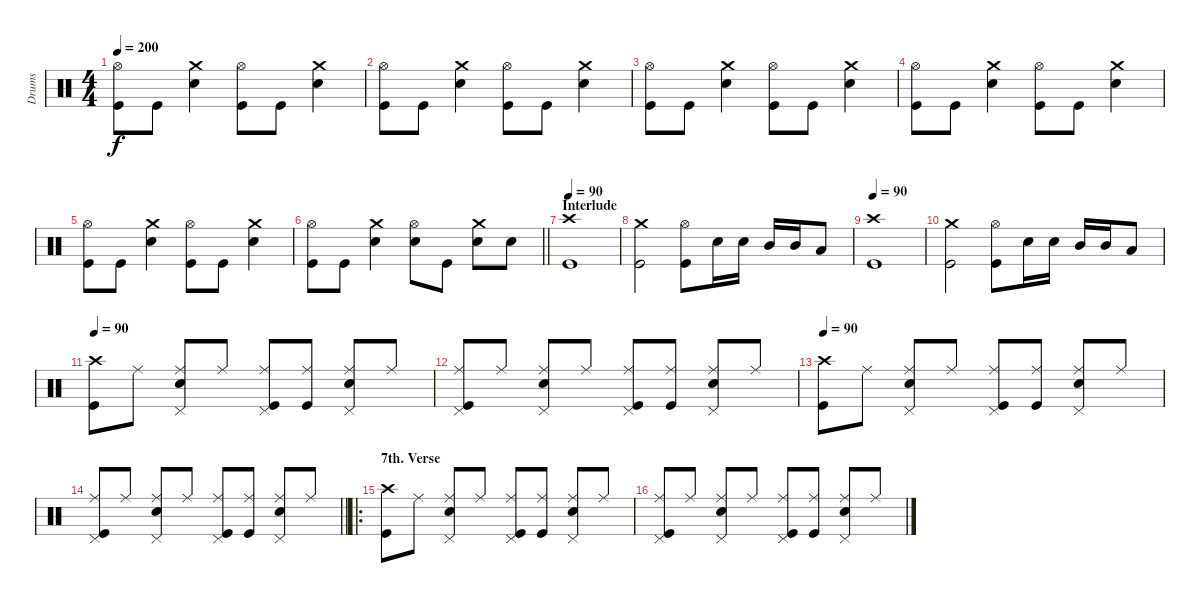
\track ("Drums" "Drums") {instrument percussion}
\staff {score}
\articulation defaults
\ts (4 4)
\tempo 200
\clef neutral
\ks c
("Hi-Hat (open)" "Kick (hit)").8{dy f} "Kick (hit)".8 ("Crash medium (hit)" "Electric Snare (hit)").4 ("Hi-Hat (open)" "Kick (hit)").8 "Kick (hit)".8 ("Crash medium (hit)" "Electric Snare (hit)").4 |
("Hi-Hat (open)" "Kick (hit)").8 "Kick (hit)".8 ("Crash medium (hit)" "Electric Snare (hit)").4 ("Hi-Hat (open)" "Kick (hit)").8 "Kick (hit)".8 ("Crash medium (hit)" "Electric Snare (hit)").4 |
("Hi-Hat (open)" "Kick (hit)").8 "Kick (hit)".8 ("Crash medium (hit)" "Electric Snare (hit)").4 ("Hi-Hat (open)" "Kick (hit)").8 "Kick (hit)".8 ("Crash medium (hit)" "Electric Snare (hit)").4 |
("Hi-Hat (open)" "Kick (hit)").8 "Kick (hit)".8 ("Crash medium (hit)" "Electric Snare (hit)").4 ("Hi-Hat (open)" "Kick (hit)").8 "Kick (hit)".8 ("Crash medium (hit)" "Electric Snare (hit)").4 |
("Hi-Hat (open)" "Kick (hit)").8 "Kick (hit)".8 ("Crash medium (hit)" "Electric Snare (hit)").4 ("Hi-Hat (open)" "Kick (hit)").8 "Kick (hit)".8 ("Crash medium (hit)" "Electric Snare (hit)").4 |
\barLineRight lightlight
("Hi-Hat (open)" "Kick (hit)").8 "Kick (hit)".8 ("Crash medium (hit)" "Electric Snare (hit)").4 ("Hi-Hat (open)" "Electric Snare (hit)").8 "Kick (hit)".8 ("Crash medium (hit)" "Electric Snare (hit)").8 "Electric Snare (hit)".8 |
\section ("" "Interlude")
\tempo 90
("Crash high (hit)" "Kick (hit)").1 |
("Crash medium (hit)" "Kick (hit)").2 ("Hi-Hat (open)" "Kick (hit)").8 "Electric Snare (hit)".16 "Electric Snare (hit)".16 "Mid Tom (hit)".16 "Mid Tom (hit)".16 "Low Tom (hit)".8 |
\tempo 90
("Crash high (hit)" "Kick (hit)").1 |
("Crash medium (hit)" "Kick (hit)").2 ("Hi-Hat (open)" "Kick (hit)").8 "Electric Snare (hit)".16 "Electric Snare (hit)".16 "Mid Tom (hit)".16 "Mid Tom (hit)".16 "Low Tom (hit)".8 |
\tempo 90
("Crash high (hit)" "Kick (hit)").8 "Ride (middle)".8 ("Pedal Hi-Hat (hit)" "Ride (middle)" "Electric Snare (hit)").8 "Ride (middle)".8 ("Pedal Hi-Hat (hit)" "Ride (middle)" "Kick (hit)").8 ("Ride (middle)" "Kick (hit)").8 ("Pedal Hi-Hat (hit)" "Ride (middle)" "Electric Snare (hit)").8 "Ride (middle)".8 |
("Pedal Hi-Hat (hit)" "Ride (middle)" "Kick (hit)").8 "Ride (middle)".8 ("Pedal Hi-Hat (hit)" "Ride (middle)" "Electric Snare (hit)").8 "Ride (middle)".8 ("Pedal Hi-Hat (hit)" "Ride (middle)" "Kick (hit)").8 ("Ride (middle)" "Kick (hit)").8 ("Pedal Hi-Hat (hit)" "Ride (middle)" "Electric Snare (hit)").8 "Ride (middle)".8 |
\tempo 90
("Crash high (hit)" "Kick (hit)").8 "Ride (middle)".8 ("Pedal Hi-Hat (hit)" "Ride (middle)" "Electric Snare (hit)").8 "Ride (middle)".8 ("Pedal Hi-Hat (hit)" "Ride (middle)" "Kick (hit)").8 ("Ride (middle)" "Kick (hit)").8 ("Pedal Hi-Hat (hit)" "Ride (middle)" "Electric Snare (hit)").8 "Ride (middle)".8 |
\barLineRight lightlight
("Pedal Hi-Hat (hit)" "Ride (middle)" "Kick (hit)").8 "Ride (middle)".8 ("Pedal Hi-Hat (hit)" "Ride (middle)" "Electric Snare (hit)").8 "Ride (middle)".8 ("Pedal Hi-Hat (hit)" "Ride (middle)" "Kick (hit)").8 ("Ride (middle)" "Kick (hit)").8 ("Pedal Hi-Hat (hit)" "Ride (middle)" "Electric Snare (hit)").8 "Ride (middle)".8 |
\ro
\section ("" "7th. Verse")
("Crash high (hit)" "Kick (hit)").8 "Ride (middle)".8 ("Pedal Hi-Hat (hit)" "Ride (middle)" "Electric Snare (hit)").8 "Ride (middle)".8 ("Pedal Hi-Hat (hit)" "Ride (middle)" "Kick (hit)").8 ("Ride (middle)" "Kick (hit)").8 ("Pedal Hi-Hat (hit)" "Ride (middle)" "Electric Snare (hit)").8 "Ride (middle)".8 |
("Pedal Hi-Hat (hit)" "Ride (middle)" "Kick (hit)").8 "Ride (middle)".8 ("Pedal Hi-Hat (hit)" "Ride (middle)" "Electric Snare (hit)").8 "Ride (middle)".8 ("Pedal Hi-Hat (hit)" "Ride (middle)" "Kick (hit)").8 ("Ride (middle)" "Kick (hit)").8 ("Pedal Hi-Hat (hit)" "Ride (middle)" "Electric Snare (hit)").8 "Ride (middle)".8
